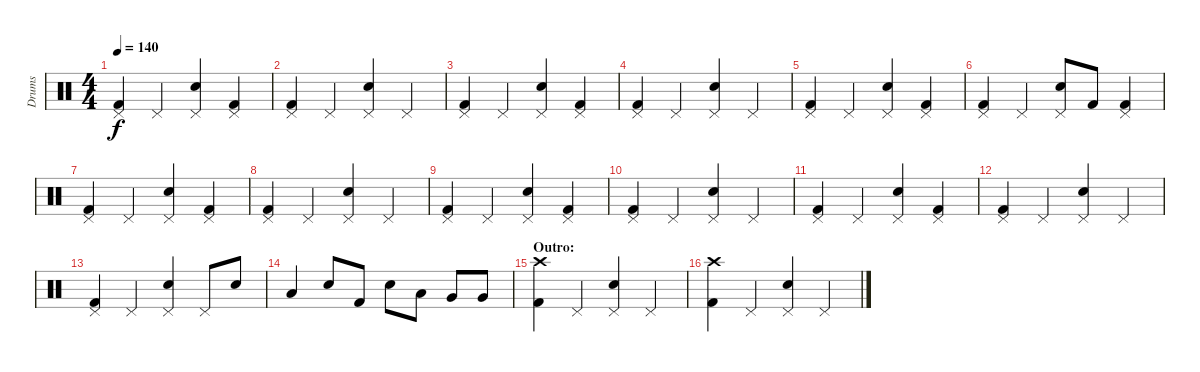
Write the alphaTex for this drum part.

\track ("Drums" "Drums") {instrument percussion}
\staff {score}
\articulation defaults
\ts (4 4)
\tempo 140
\clef neutral
\ks c
("Pedal Hi-Hat (hit)" "Kick (hit) 2").4{dy f} "Pedal Hi-Hat (hit)".4 ("Pedal Hi-Hat (hit)" "Electric Snare (hit)").4 ("Pedal Hi-Hat (hit)" "Kick (hit) 2").4 |
("Pedal Hi-Hat (hit)" "Kick (hit) 2").4 "Pedal Hi-Hat (hit)".4 ("Pedal Hi-Hat (hit)" "Electric Snare (hit)").4 "Pedal Hi-Hat (hit)".4 |
("Pedal Hi-Hat (hit)" "Kick (hit) 2").4 "Pedal Hi-Hat (hit)".4 ("Pedal Hi-Hat (hit)" "Electric Snare (hit)").4 ("Pedal Hi-Hat (hit)" "Kick (hit) 2").4 |
("Pedal Hi-Hat (hit)" "Kick (hit) 2").4 "Pedal Hi-Hat (hit)".4 ("Pedal Hi-Hat (hit)" "Electric Snare (hit)").4 "Pedal Hi-Hat (hit)".4 |
("Pedal Hi-Hat (hit)" "Kick (hit) 2").4 "Pedal Hi-Hat (hit)".4 ("Pedal Hi-Hat (hit)" "Electric Snare (hit)").4 ("Pedal Hi-Hat (hit)" "Kick (hit) 2").4 |
("Pedal Hi-Hat (hit)" "Kick (hit) 2").4 "Pedal Hi-Hat (hit)".4 ("Pedal Hi-Hat (hit)" "Electric Snare (hit)").8 "Kick (hit) 2".8 ("Pedal Hi-Hat (hit)" "Kick (hit) 2").4 |
("Pedal Hi-Hat (hit)" "Kick (hit) 2").4 "Pedal Hi-Hat (hit)".4 ("Pedal Hi-Hat (hit)" "Electric Snare (hit)").4 ("Pedal Hi-Hat (hit)" "Kick (hit) 2").4 |
("Pedal Hi-Hat (hit)" "Kick (hit) 2").4 "Pedal Hi-Hat (hit)".4 ("Pedal Hi-Hat (hit)" "Electric Snare (hit)").4 "Pedal Hi-Hat (hit)".4 |
("Pedal Hi-Hat (hit)" "Kick (hit) 2").4 "Pedal Hi-Hat (hit)".4 ("Pedal Hi-Hat (hit)" "Electric Snare (hit)").4 ("Pedal Hi-Hat (hit)" "Kick (hit) 2").4 |
("Pedal Hi-Hat (hit)" "Kick (hit) 2").4 "Pedal Hi-Hat (hit)".4 ("Pedal Hi-Hat (hit)" "Electric Snare (hit)").4 "Pedal Hi-Hat (hit)".4 |
("Pedal Hi-Hat (hit)" "Kick (hit) 2").4 "Pedal Hi-Hat (hit)".4 ("Pedal Hi-Hat (hit)" "Electric Snare (hit)").4 ("Pedal Hi-Hat (hit)" "Kick (hit) 2").4 |
("Pedal Hi-Hat (hit)" "Kick (hit) 2").4 "Pedal Hi-Hat (hit)".4 ("Pedal Hi-Hat (hit)" "Electric Snare (hit)").4 "Pedal Hi-Hat (hit)".4 |
("Pedal Hi-Hat (hit)" "Kick (hit) 2").4 "Pedal Hi-Hat (hit)".4 ("Pedal Hi-Hat (hit)" "Electric Snare (hit)").4 "Pedal Hi-Hat (hit)".8 "Electric Snare (hit)".8 |
"Low Tom (hit)".4 "Electric Snare (hit)".8 "Kick (hit) 2".8 "Electric Snare (hit)".8 "Low Tom (hit)".8 "Very Low Tom (hit)".8 "Very Low Tom (hit)".8 |
\section ("" "Outro:")
("Crash high (hit)" "Kick (hit) 2").4 "Pedal Hi-Hat (hit)".4 ("Pedal Hi-Hat (hit)" "Electric Snare (hit)").4 "Pedal Hi-Hat (hit)".4 |
("Crash high (hit)" "Kick (hit) 2").4 "Pedal Hi-Hat (hit)".4 ("Pedal Hi-Hat (hit)" "Electric Snare (hit)").4 "Pedal Hi-Hat (hit)".4
